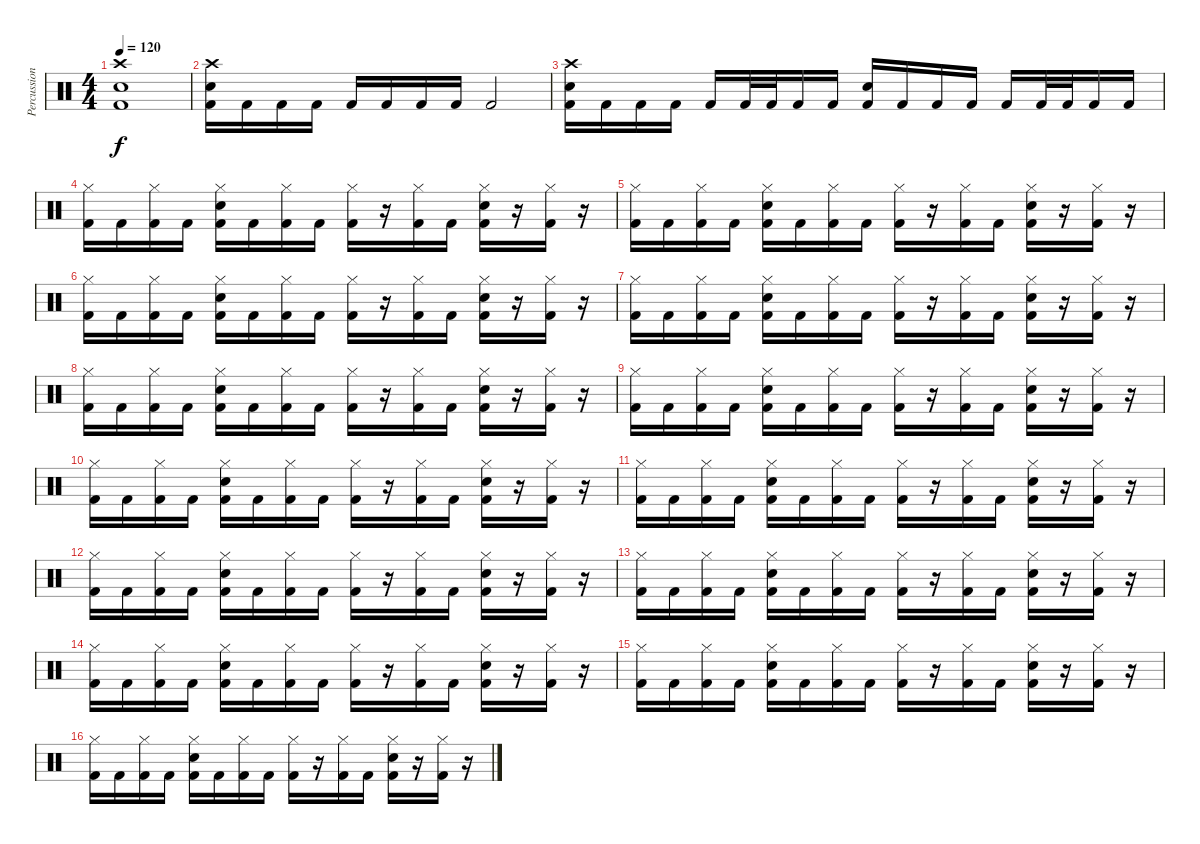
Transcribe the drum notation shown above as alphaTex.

\track ("Percussions" "Percussion") {instrument percussion}
\staff {score}
\articulation defaults
\ts (4 4)
\tempo 120
\clef neutral
\ks c
("Crash high (hit)" "Kick (hit) 2" "Snare (hit) 2").1{dy f} |
("Crash high (hit)" "Kick (hit) 2" "Snare (hit) 2").16 "Kick (hit) 2".16 "Kick (hit) 2".16 "Kick (hit) 2".16 "Kick (hit) 2".16 "Kick (hit) 2".16 "Kick (hit) 2".16 "Kick (hit) 2".16 "Kick (hit) 2".2 |
("Crash high (hit)" "Kick (hit) 2" "Snare (hit) 2").16 "Kick (hit) 2".16 "Kick (hit) 2".16 "Kick (hit) 2".16 "Kick (hit) 2".16 "Kick (hit) 2".32 "Kick (hit) 2".32 "Kick (hit) 2".16 "Kick (hit) 2".16 ("Kick (hit) 2" "Snare (hit) 2").16 "Kick (hit) 2".16 "Kick (hit) 2".16 "Kick (hit) 2".16 "Kick (hit) 2".16 "Kick (hit) 2".32 "Kick (hit) 2".32 "Kick (hit) 2".16 "Kick (hit) 2".16 |
("Hi-Hat (closed)" "Kick (hit) 2").16 "Kick (hit) 2".16 ("Hi-Hat (closed)" "Kick (hit) 2").16 "Kick (hit) 2".16 ("Hi-Hat (closed)" "Kick (hit) 2" "Snare (hit) 2").16 "Kick (hit) 2".16 ("Hi-Hat (closed)" "Kick (hit) 2").16 "Kick (hit) 2".16 ("Hi-Hat (closed)" "Kick (hit) 2").16 r.16 ("Hi-Hat (closed)" "Kick (hit) 2").16 "Kick (hit) 2".16 ("Hi-Hat (closed)" "Kick (hit) 2" "Snare (hit) 2").16 r.16 ("Hi-Hat (closed)" "Kick (hit) 2").16 r.16 |
("Hi-Hat (closed)" "Kick (hit) 2").16 "Kick (hit) 2".16 ("Hi-Hat (closed)" "Kick (hit) 2").16 "Kick (hit) 2".16 ("Hi-Hat (closed)" "Kick (hit) 2" "Snare (hit) 2").16 "Kick (hit) 2".16 ("Hi-Hat (closed)" "Kick (hit) 2").16 "Kick (hit) 2".16 ("Hi-Hat (closed)" "Kick (hit) 2").16 r.16 ("Hi-Hat (closed)" "Kick (hit) 2").16 "Kick (hit) 2".16 ("Hi-Hat (closed)" "Kick (hit) 2" "Snare (hit) 2").16 r.16 ("Hi-Hat (closed)" "Kick (hit) 2").16 r.16 |
("Hi-Hat (closed)" "Kick (hit) 2").16 "Kick (hit) 2".16 ("Hi-Hat (closed)" "Kick (hit) 2").16 "Kick (hit) 2".16 ("Hi-Hat (closed)" "Kick (hit) 2" "Snare (hit) 2").16 "Kick (hit) 2".16 ("Hi-Hat (closed)" "Kick (hit) 2").16 "Kick (hit) 2".16 ("Hi-Hat (closed)" "Kick (hit) 2").16 r.16 ("Hi-Hat (closed)" "Kick (hit) 2").16 "Kick (hit) 2".16 ("Hi-Hat (closed)" "Kick (hit) 2" "Snare (hit) 2").16 r.16 ("Hi-Hat (closed)" "Kick (hit) 2").16 r.16 |
("Hi-Hat (closed)" "Kick (hit) 2").16 "Kick (hit) 2".16 ("Hi-Hat (closed)" "Kick (hit) 2").16 "Kick (hit) 2".16 ("Hi-Hat (closed)" "Kick (hit) 2" "Snare (hit) 2").16 "Kick (hit) 2".16 ("Hi-Hat (closed)" "Kick (hit) 2").16 "Kick (hit) 2".16 ("Hi-Hat (closed)" "Kick (hit) 2").16 r.16 ("Hi-Hat (closed)" "Kick (hit) 2").16 "Kick (hit) 2".16 ("Hi-Hat (closed)" "Kick (hit) 2" "Snare (hit) 2").16 r.16 ("Hi-Hat (closed)" "Kick (hit) 2").16 r.16 |
("Hi-Hat (closed)" "Kick (hit) 2").16 "Kick (hit) 2".16 ("Hi-Hat (closed)" "Kick (hit) 2").16 "Kick (hit) 2".16 ("Hi-Hat (closed)" "Kick (hit) 2" "Snare (hit) 2").16 "Kick (hit) 2".16 ("Hi-Hat (closed)" "Kick (hit) 2").16 "Kick (hit) 2".16 ("Hi-Hat (closed)" "Kick (hit) 2").16 r.16 ("Hi-Hat (closed)" "Kick (hit) 2").16 "Kick (hit) 2".16 ("Hi-Hat (closed)" "Kick (hit) 2" "Snare (hit) 2").16 r.16 ("Hi-Hat (closed)" "Kick (hit) 2").16 r.16 |
("Hi-Hat (closed)" "Kick (hit) 2").16 "Kick (hit) 2".16 ("Hi-Hat (closed)" "Kick (hit) 2").16 "Kick (hit) 2".16 ("Hi-Hat (closed)" "Kick (hit) 2" "Snare (hit) 2").16 "Kick (hit) 2".16 ("Hi-Hat (closed)" "Kick (hit) 2").16 "Kick (hit) 2".16 ("Hi-Hat (closed)" "Kick (hit) 2").16 r.16 ("Hi-Hat (closed)" "Kick (hit) 2").16 "Kick (hit) 2".16 ("Hi-Hat (closed)" "Kick (hit) 2" "Snare (hit) 2").16 r.16 ("Hi-Hat (closed)" "Kick (hit) 2").16 r.16 |
("Hi-Hat (closed)" "Kick (hit) 2").16 "Kick (hit) 2".16 ("Hi-Hat (closed)" "Kick (hit) 2").16 "Kick (hit) 2".16 ("Hi-Hat (closed)" "Kick (hit) 2" "Snare (hit) 2").16 "Kick (hit) 2".16 ("Hi-Hat (closed)" "Kick (hit) 2").16 "Kick (hit) 2".16 ("Hi-Hat (closed)" "Kick (hit) 2").16 r.16 ("Hi-Hat (closed)" "Kick (hit) 2").16 "Kick (hit) 2".16 ("Hi-Hat (closed)" "Kick (hit) 2" "Snare (hit) 2").16 r.16 ("Hi-Hat (closed)" "Kick (hit) 2").16 r.16 |
("Hi-Hat (closed)" "Kick (hit) 2").16 "Kick (hit) 2".16 ("Hi-Hat (closed)" "Kick (hit) 2").16 "Kick (hit) 2".16 ("Hi-Hat (closed)" "Kick (hit) 2" "Snare (hit) 2").16 "Kick (hit) 2".16 ("Hi-Hat (closed)" "Kick (hit) 2").16 "Kick (hit) 2".16 ("Hi-Hat (closed)" "Kick (hit) 2").16 r.16 ("Hi-Hat (closed)" "Kick (hit) 2").16 "Kick (hit) 2".16 ("Hi-Hat (closed)" "Kick (hit) 2" "Snare (hit) 2").16 r.16 ("Hi-Hat (closed)" "Kick (hit) 2").16 r.16 |
("Hi-Hat (closed)" "Kick (hit) 2").16 "Kick (hit) 2".16 ("Hi-Hat (closed)" "Kick (hit) 2").16 "Kick (hit) 2".16 ("Hi-Hat (closed)" "Kick (hit) 2" "Snare (hit) 2").16 "Kick (hit) 2".16 ("Hi-Hat (closed)" "Kick (hit) 2").16 "Kick (hit) 2".16 ("Hi-Hat (closed)" "Kick (hit) 2").16 r.16 ("Hi-Hat (closed)" "Kick (hit) 2").16 "Kick (hit) 2".16 ("Hi-Hat (closed)" "Kick (hit) 2" "Snare (hit) 2").16 r.16 ("Hi-Hat (closed)" "Kick (hit) 2").16 r.16 |
("Hi-Hat (closed)" "Kick (hit) 2").16 "Kick (hit) 2".16 ("Hi-Hat (closed)" "Kick (hit) 2").16 "Kick (hit) 2".16 ("Hi-Hat (closed)" "Kick (hit) 2" "Snare (hit) 2").16 "Kick (hit) 2".16 ("Hi-Hat (closed)" "Kick (hit) 2").16 "Kick (hit) 2".16 ("Hi-Hat (closed)" "Kick (hit) 2").16 r.16 ("Hi-Hat (closed)" "Kick (hit) 2").16 "Kick (hit) 2".16 ("Hi-Hat (closed)" "Kick (hit) 2" "Snare (hit) 2").16 r.16 ("Hi-Hat (closed)" "Kick (hit) 2").16 r.16 |
("Hi-Hat (closed)" "Kick (hit) 2").16 "Kick (hit) 2".16 ("Hi-Hat (closed)" "Kick (hit) 2").16 "Kick (hit) 2".16 ("Hi-Hat (closed)" "Kick (hit) 2" "Snare (hit) 2").16 "Kick (hit) 2".16 ("Hi-Hat (closed)" "Kick (hit) 2").16 "Kick (hit) 2".16 ("Hi-Hat (closed)" "Kick (hit) 2").16 r.16 ("Hi-Hat (closed)" "Kick (hit) 2").16 "Kick (hit) 2".16 ("Hi-Hat (closed)" "Kick (hit) 2" "Snare (hit) 2").16 r.16 ("Hi-Hat (closed)" "Kick (hit) 2").16 r.16 |
("Hi-Hat (closed)" "Kick (hit) 2").16 "Kick (hit) 2".16 ("Hi-Hat (closed)" "Kick (hit) 2").16 "Kick (hit) 2".16 ("Hi-Hat (closed)" "Kick (hit) 2" "Snare (hit) 2").16 "Kick (hit) 2".16 ("Hi-Hat (closed)" "Kick (hit) 2").16 "Kick (hit) 2".16 ("Hi-Hat (closed)" "Kick (hit) 2").16 r.16 ("Hi-Hat (closed)" "Kick (hit) 2").16 "Kick (hit) 2".16 ("Hi-Hat (closed)" "Kick (hit) 2" "Snare (hit) 2").16 r.16 ("Hi-Hat (closed)" "Kick (hit) 2").16 r.16 |
("Hi-Hat (closed)" "Kick (hit) 2").16 "Kick (hit) 2".16 ("Hi-Hat (closed)" "Kick (hit) 2").16 "Kick (hit) 2".16 ("Hi-Hat (closed)" "Kick (hit) 2" "Snare (hit) 2").16 "Kick (hit) 2".16 ("Hi-Hat (closed)" "Kick (hit) 2").16 "Kick (hit) 2".16 ("Hi-Hat (closed)" "Kick (hit) 2").16 r.16 ("Hi-Hat (closed)" "Kick (hit) 2").16 "Kick (hit) 2".16 ("Hi-Hat (closed)" "Kick (hit) 2" "Snare (hit) 2").16 r.16 ("Hi-Hat (closed)" "Kick (hit) 2").16 r.16
